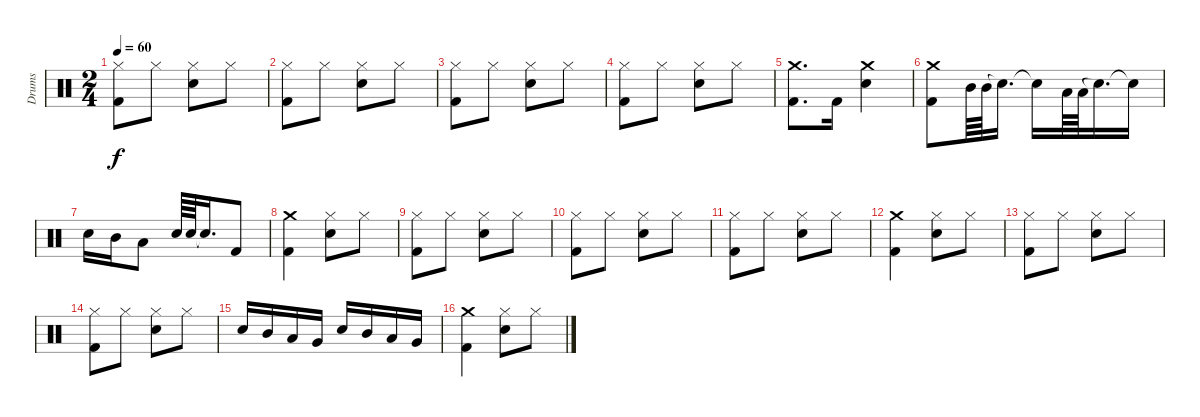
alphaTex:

\track ("Drums" "Drums") {instrument percussion}
\staff {score}
\articulation defaults
\ts (2 4)
\tempo 60
\clef neutral
\ks c
("Hi-Hat (closed)" "Kick (hit) 2").8{dy f} "Hi-Hat (closed)".8 ("Hi-Hat (closed)" "Hand Clap (hit)").8 "Hi-Hat (closed)".8 |
("Hi-Hat (closed)" "Kick (hit) 2").8 "Hi-Hat (closed)".8 ("Hi-Hat (closed)" "Electric Snare (hit)").8 "Hi-Hat (closed)".8 |
("Hi-Hat (closed)" "Kick (hit) 2").8 "Hi-Hat (closed)".8 ("Hi-Hat (closed)" "Hand Clap (hit)").8 "Hi-Hat (closed)".8 |
("Hi-Hat (closed)" "Kick (hit) 2").8 "Hi-Hat (closed)".8 ("Hi-Hat (closed)" "Electric Snare (hit)").8 "Hi-Hat (closed)".8 |
("Crash medium (hit)" "Kick (hit) 2").8{d} "Kick (hit) 2".16 ("Crash medium (hit)" "Electric Snare (hit)").4 |
("Crash medium (hit)" "Kick (hit) 2").8 "Mid Tom (hit)".64 "Mid Tom (hit)".64 "Snare (hit)"{t}.16{d} "Snare (hit)"{t}.16 "Low Tom (hit)".64 "Low Tom (hit)".64 "Snare (hit)"{t}.16{d} "Snare (hit)"{t}.16 |
"Electric Snare (hit)".16 "Mid Tom (hit)".16 "Low Tom (hit)".8 "Electric Snare (hit)".64 "Electric Snare (hit)".64 "Snare (hit)"{t}.16{d} "Kick (hit) 2".8 |
("Crash medium (hit)" "Kick (hit) 2").4 ("Hi-Hat (closed)" "Electric Snare (hit)").8 "Hi-Hat (closed)".8 |
("Hi-Hat (closed)" "Kick (hit) 2").8 "Hi-Hat (closed)".8 ("Hi-Hat (closed)" "Electric Snare (hit)").8 "Hi-Hat (closed)".8 |
("Hi-Hat (closed)" "Kick (hit) 2").8 "Hi-Hat (closed)".8 ("Hi-Hat (closed)" "Electric Snare (hit)").8 "Hi-Hat (closed)".8 |
("Hi-Hat (closed)" "Kick (hit) 2").8 "Hi-Hat (closed)".8 ("Hi-Hat (closed)" "Electric Snare (hit)").8 "Hi-Hat (closed)".8 |
("Crash medium (hit)" "Kick (hit) 2").4 ("Hi-Hat (closed)" "Electric Snare (hit)").8 "Hi-Hat (closed)".8 |
("Hi-Hat (closed)" "Kick (hit) 2").8 "Hi-Hat (closed)".8 ("Hi-Hat (closed)" "Electric Snare (hit)").8 "Hi-Hat (closed)".8 |
("Hi-Hat (closed)" "Kick (hit) 2").8 "Hi-Hat (closed)".8 ("Hi-Hat (closed)" "Electric Snare (hit)").8 "Hi-Hat (closed)".8 |
"Electric Snare (hit)".16 "Mid Tom (hit)".16 "Low Tom (hit)".16 "Very Low Tom (hit)".16 "Electric Snare (hit)".16 "Mid Tom (hit)".16 "Low Tom (hit)".16 "Very Low Tom (hit)".16 |
("Crash medium (hit)" "Kick (hit) 2").4 ("Hi-Hat (closed)" "Electric Snare (hit)").8 "Hi-Hat (closed)".8
